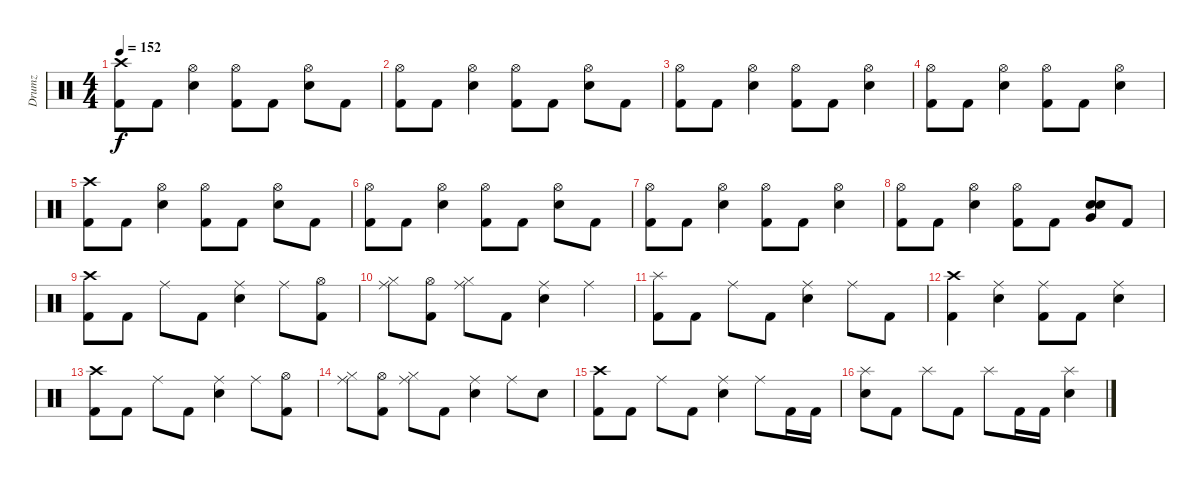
\track ("Drumz" "Drumz") {instrument percussion}
\staff {score}
\articulation defaults
\ts (4 4)
\tempo 152
\clef neutral
\ks c
("Kick (hit) 2" "Crash high (hit)").8{dy f} "Kick (hit) 2".8 ("Snare (hit) 2" "Hi-Hat (open)").4 ("Kick (hit) 2" "Hi-Hat (open)").8 "Kick (hit) 2".8 ("Snare (hit) 2" "Hi-Hat (open)").8 "Kick (hit) 2".8 |
("Kick (hit) 2" "Hi-Hat (open)").8 "Kick (hit) 2".8 ("Snare (hit) 2" "Hi-Hat (open)").4 ("Kick (hit) 2" "Hi-Hat (open)").8 "Kick (hit) 2".8 ("Snare (hit) 2" "Hi-Hat (open)").8 "Kick (hit) 2".8 |
("Kick (hit) 2" "Hi-Hat (open)").8 "Kick (hit) 2".8 ("Snare (hit) 2" "Hi-Hat (open)").4 ("Kick (hit) 2" "Hi-Hat (open)").8 "Kick (hit) 2".8 ("Snare (hit) 2" "Hi-Hat (open)").4 |
("Kick (hit) 2" "Hi-Hat (open)").8 "Kick (hit) 2".8 ("Snare (hit) 2" "Hi-Hat (open)").4 ("Kick (hit) 2" "Hi-Hat (open)").8 "Kick (hit) 2".8 ("Snare (hit) 2" "Hi-Hat (open)").4 |
("Kick (hit) 2" "Crash high (hit)").8 "Kick (hit) 2".8 ("Snare (hit) 2" "Hi-Hat (open)").4 ("Kick (hit) 2" "Hi-Hat (open)").8 "Kick (hit) 2".8 ("Snare (hit) 2" "Hi-Hat (open)").8 "Kick (hit) 2".8 |
("Kick (hit) 2" "Hi-Hat (open)").8 "Kick (hit) 2".8 ("Snare (hit) 2" "Hi-Hat (open)").4 ("Kick (hit) 2" "Hi-Hat (open)").8 "Kick (hit) 2".8 ("Snare (hit) 2" "Hi-Hat (open)").8 "Kick (hit) 2".8 |
("Kick (hit) 2" "Hi-Hat (open)").8 "Kick (hit) 2".8 ("Snare (hit) 2" "Hi-Hat (open)").4 ("Kick (hit) 2" "Hi-Hat (open)").8 "Kick (hit) 2".8 ("Snare (hit) 2" "Hi-Hat (open)").4 |
("Kick (hit) 2" "Hi-Hat (open)").8 "Kick (hit) 2".8 ("Snare (hit) 2" "Hi-Hat (open)").4 ("Kick (hit) 2" "Hi-Hat (open)").8 "Kick (hit) 2".8 ("Snare (hit) 2" "Snare (hit) 2" "Very Low Tom (hit)").8 "Kick (hit) 2".8 |
("Kick (hit) 2" "Crash high (hit)").8 "Kick (hit) 2".8 "Ride (middle)".8 "Kick (hit) 2".8 ("Snare (hit) 2" "Ride (middle)").4 "Ride (middle)".8 ("Kick (hit) 2" "Hi-Hat (open)").8 |
("Hi-Hat (closed)" "Ride (middle)").8 ("Kick (hit) 2" "Hi-Hat (open)").8 ("Hi-Hat (closed)" "Ride (middle)").8 "Kick (hit) 2".8 ("Snare (hit) 2" "Ride (middle)").4 "Ride (middle)".4 |
("Kick (hit) 2" "Splash (hit)").8 "Kick (hit) 2".8 "Ride (middle)".8 "Kick (hit) 2".8 ("Snare (hit) 2" "Ride (middle)").4 "Ride (middle)".8 "Kick (hit) 2".8 |
("Kick (hit) 2" "Crash high (hit)").4 ("Snare (hit) 2" "Ride (middle)").4 ("Kick (hit) 2" "Ride (middle)").8 "Kick (hit) 2".8 ("Snare (hit) 2" "Ride (middle)").4 |
("Kick (hit) 2" "Crash high (hit)").8 "Kick (hit) 2".8 "Ride (middle)".8 "Kick (hit) 2".8 ("Snare (hit) 2" "Ride (middle)").4 "Ride (middle)".8 ("Kick (hit) 2" "Hi-Hat (open)").8 |
("Hi-Hat (closed)" "Ride (middle)").8 ("Kick (hit) 2" "Hi-Hat (open)").8 ("Hi-Hat (closed)" "Ride (middle)").8 "Kick (hit) 2".8 ("Snare (hit) 2" "Ride (middle)").4 "Ride (middle)".8 "Snare (hit) 2".8 |
("Kick (hit) 2" "Crash high (hit)").8 "Kick (hit) 2".8 "Ride (middle)".8 "Kick (hit) 2".8 ("Snare (hit) 2" "Ride (middle)").4 "Ride (middle)".8 "Kick (hit) 2".16 "Kick (hit) 2".16 |
("Snare (hit) 2" "Splash (hit)").8 "Kick (hit) 2".8 "Splash (hit)".8 "Kick (hit) 2".8 "Splash (hit)".8 "Kick (hit) 2".16 "Kick (hit) 2".16 ("Snare (hit) 2" "Splash (hit)").4
